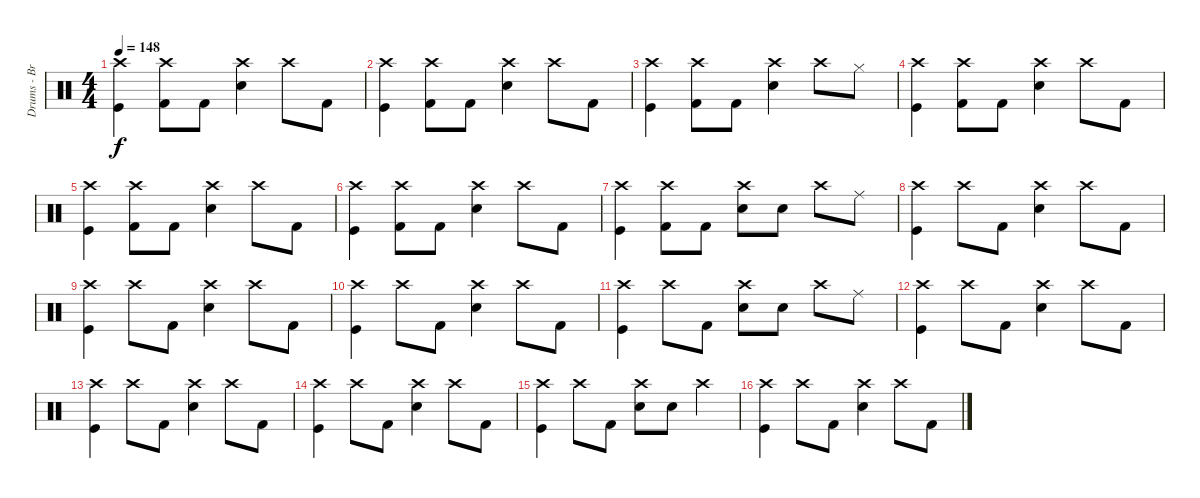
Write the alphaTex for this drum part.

\track ("Drums - Brandon Barnes" "Drums - Br") {instrument percussion}
\staff {score}
\articulation defaults
\ts (4 4)
\tempo 148
\clef neutral
\ks c
("Crash high (hit)" "Kick (hit)").4{dy f} ("Crash high (hit)" "Kick (hit) 2").8 "Kick (hit) 2".8 ("Snare (hit) 2" "Crash high (hit)").4 "Crash high (hit)".8 "Kick (hit) 2".8 |
("Crash high (hit)" "Kick (hit)").4 ("Crash high (hit)" "Kick (hit) 2").8 "Kick (hit) 2".8 ("Snare (hit) 2" "Crash high (hit)").4 "Crash high (hit)".8 "Kick (hit) 2".8 |
("Crash high (hit)" "Kick (hit)").4 ("Crash high (hit)" "Kick (hit) 2").8 "Kick (hit) 2".8 ("Snare (hit) 2" "Crash high (hit)").4 "Crash high (hit)".8 "Hi-Hat (closed)".8 |
("Crash high (hit)" "Kick (hit)").4 ("Crash high (hit)" "Kick (hit) 2").8 "Kick (hit) 2".8 ("Snare (hit) 2" "Crash high (hit)").4 "Crash high (hit)".8 "Kick (hit) 2".8 |
("Crash high (hit)" "Kick (hit)").4 ("Crash high (hit)" "Kick (hit) 2").8 "Kick (hit) 2".8 ("Snare (hit) 2" "Crash high (hit)").4 "Crash high (hit)".8 "Kick (hit) 2".8 |
("Crash high (hit)" "Kick (hit)").4 ("Crash high (hit)" "Kick (hit) 2").8 "Kick (hit) 2".8 ("Snare (hit) 2" "Crash high (hit)").4 "Crash high (hit)".8 "Kick (hit) 2".8 |
("Crash high (hit)" "Kick (hit)").4 ("Crash high (hit)" "Kick (hit) 2").8 "Kick (hit) 2".8 ("Snare (hit) 2" "Crash high (hit)").8 "Snare (hit) 2".8 "Crash high (hit)".8 "Ride (middle)".8 |
("Crash high (hit)" "Kick (hit)").4 "Crash high (hit)".8 "Kick (hit) 2".8 ("Snare (hit) 2" "Crash high (hit)").4 "Crash high (hit)".8 "Kick (hit) 2".8 |
("Crash high (hit)" "Kick (hit)").4 "Crash high (hit)".8 "Kick (hit) 2".8 ("Snare (hit) 2" "Crash high (hit)").4 "Crash high (hit)".8 "Kick (hit) 2".8 |
("Crash high (hit)" "Kick (hit)").4 "Crash high (hit)".8 "Kick (hit) 2".8 ("Snare (hit) 2" "Crash high (hit)").4 "Crash high (hit)".8 "Kick (hit) 2".8 |
("Crash high (hit)" "Kick (hit)").4 "Crash high (hit)".8 "Kick (hit) 2".8 ("Snare (hit) 2" "Crash high (hit)").8 "Snare (hit) 2".8 "Crash high (hit)".8 "Ride (middle)".8 |
("Crash high (hit)" "Kick (hit)").4 "Crash high (hit)".8 "Kick (hit) 2".8 ("Snare (hit) 2" "Crash high (hit)").4 "Crash high (hit)".8 "Kick (hit) 2".8 |
("Crash high (hit)" "Kick (hit)").4 "Crash high (hit)".8 "Kick (hit) 2".8 ("Snare (hit) 2" "Crash high (hit)").4 "Crash high (hit)".8 "Kick (hit) 2".8 |
("Crash high (hit)" "Kick (hit)").4 "Crash high (hit)".8 "Kick (hit) 2".8 ("Snare (hit) 2" "Crash high (hit)").4 "Crash high (hit)".8 "Kick (hit) 2".8 |
("Crash high (hit)" "Kick (hit)").4 "Crash high (hit)".8 "Kick (hit) 2".8 ("Snare (hit) 2" "Crash high (hit)").8 "Snare (hit) 2".8 "Crash high (hit)".4 |
("Crash high (hit)" "Kick (hit)").4 "Crash high (hit)".8 "Kick (hit) 2".8 ("Snare (hit) 2" "Crash high (hit)").4 "Crash high (hit)".8 "Kick (hit) 2".8
